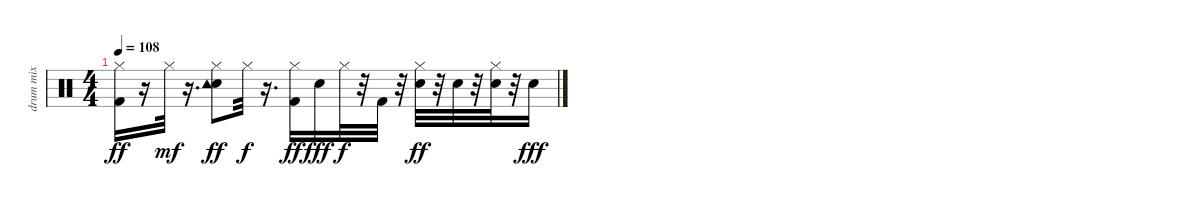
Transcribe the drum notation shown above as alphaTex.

\track ("drum mix" "drum mix") {instrument percussion}
\staff {score}
\articulation defaults
\ts (4 4)
\tempo 108
\clef neutral
\ks c
("Kick (hit) 2" "Hi-Hat (closed)").16{dy ff volume 1} r.16 "Hi-Hat (closed)".32{dy mf volume 1} r.16{d} ("Electric Snare (hit)" "Hi-Hat (closed)" "Tambourine (hit)").8{dy ff volume 1} "Hi-Hat (closed)".32{dy f volume 1} r.16{d} ("Kick (hit) 2" "Hi-Hat (closed)").16{dy ff volume 1} "Electric Snare (hit)".16{dy fff volume 1} "Hi-Hat (closed)".32{dy f volume 1} r.32 "Kick (hit) 2".32{volume 1} r.32 ("Electric Snare (hit)" "Hi-Hat (closed)").32{dy ff volume 0} r.32 "Electric Snare (hit)".32{volume 0} r.32 ("Electric Snare (hit)" "Hi-Hat (closed)").32{volume 0} r.32 "Electric Snare (hit)".16{dy fff volume 0}
